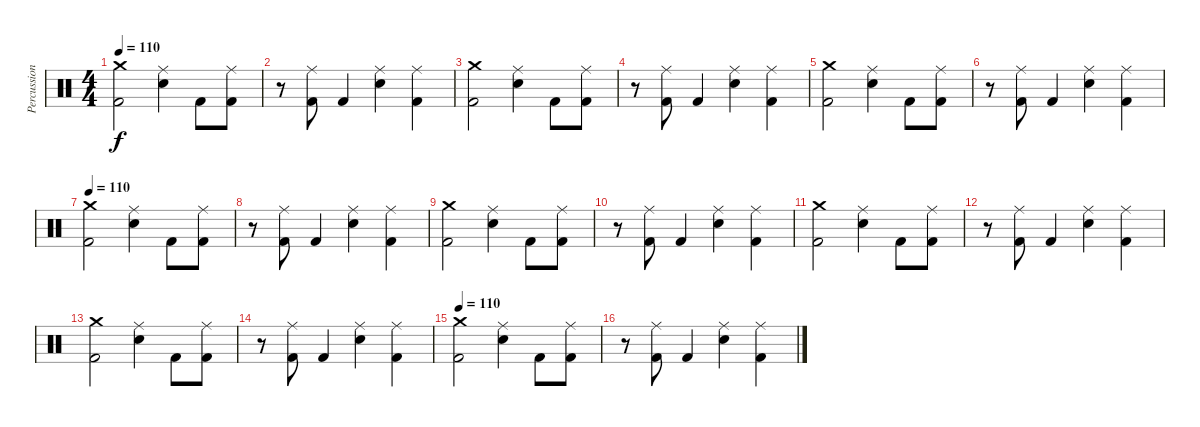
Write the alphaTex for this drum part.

\track ("Percussion" "Percussion") {instrument percussion}
\staff {score}
\articulation defaults
\ts (4 4)
\tempo 110
\clef neutral
\ks c
("Crash medium (hit)" "Kick (hit) 2").2{dy f} ("Ride (middle)" "Electric Snare (hit)").4 "Kick (hit) 2".8 ("Ride (middle)" "Kick (hit) 2").8 |
r.8 ("Ride (middle)" "Kick (hit) 2").8 "Kick (hit) 2".4 ("Ride (middle)" "Electric Snare (hit)").4 ("Ride (middle)" "Kick (hit) 2").4 |
("Crash medium (hit)" "Kick (hit) 2").2 ("Ride (middle)" "Electric Snare (hit)").4 "Kick (hit) 2".8 ("Ride (middle)" "Kick (hit) 2").8 |
r.8 ("Ride (middle)" "Kick (hit) 2").8 "Kick (hit) 2".4 ("Ride (middle)" "Electric Snare (hit)").4 ("Ride (middle)" "Kick (hit) 2").4 |
("Crash medium (hit)" "Kick (hit) 2").2 ("Ride (middle)" "Electric Snare (hit)").4 "Kick (hit) 2".8 ("Ride (middle)" "Kick (hit) 2").8 |
r.8 ("Ride (middle)" "Kick (hit) 2").8 "Kick (hit) 2".4 ("Ride (middle)" "Electric Snare (hit)").4 ("Ride (middle)" "Kick (hit) 2").4 |
\tempo 110
("Crash medium (hit)" "Kick (hit) 2").2 ("Ride (middle)" "Electric Snare (hit)").4 "Kick (hit) 2".8 ("Ride (middle)" "Kick (hit) 2").8 |
r.8 ("Ride (middle)" "Kick (hit) 2").8 "Kick (hit) 2".4 ("Ride (middle)" "Electric Snare (hit)").4 ("Ride (middle)" "Kick (hit) 2").4 |
("Crash medium (hit)" "Kick (hit) 2").2 ("Ride (middle)" "Electric Snare (hit)").4 "Kick (hit) 2".8 ("Ride (middle)" "Kick (hit) 2").8 |
r.8 ("Ride (middle)" "Kick (hit) 2").8 "Kick (hit) 2".4 ("Ride (middle)" "Electric Snare (hit)").4 ("Ride (middle)" "Kick (hit) 2").4 |
("Crash medium (hit)" "Kick (hit) 2").2 ("Ride (middle)" "Electric Snare (hit)").4 "Kick (hit) 2".8 ("Ride (middle)" "Kick (hit) 2").8 |
r.8 ("Ride (middle)" "Kick (hit) 2").8 "Kick (hit) 2".4 ("Ride (middle)" "Electric Snare (hit)").4 ("Ride (middle)" "Kick (hit) 2").4 |
("Crash medium (hit)" "Kick (hit) 2").2 ("Ride (middle)" "Electric Snare (hit)").4 "Kick (hit) 2".8 ("Ride (middle)" "Kick (hit) 2").8 |
r.8 ("Ride (middle)" "Kick (hit) 2").8 "Kick (hit) 2".4 ("Ride (middle)" "Electric Snare (hit)").4 ("Ride (middle)" "Kick (hit) 2").4 |
\tempo 110
("Crash medium (hit)" "Kick (hit) 2").2 ("Ride (middle)" "Electric Snare (hit)").4 "Kick (hit) 2".8 ("Ride (middle)" "Kick (hit) 2").8 |
r.8 ("Ride (middle)" "Kick (hit) 2").8 "Kick (hit) 2".4 ("Ride (middle)" "Electric Snare (hit)").4 ("Ride (middle)" "Kick (hit) 2").4
